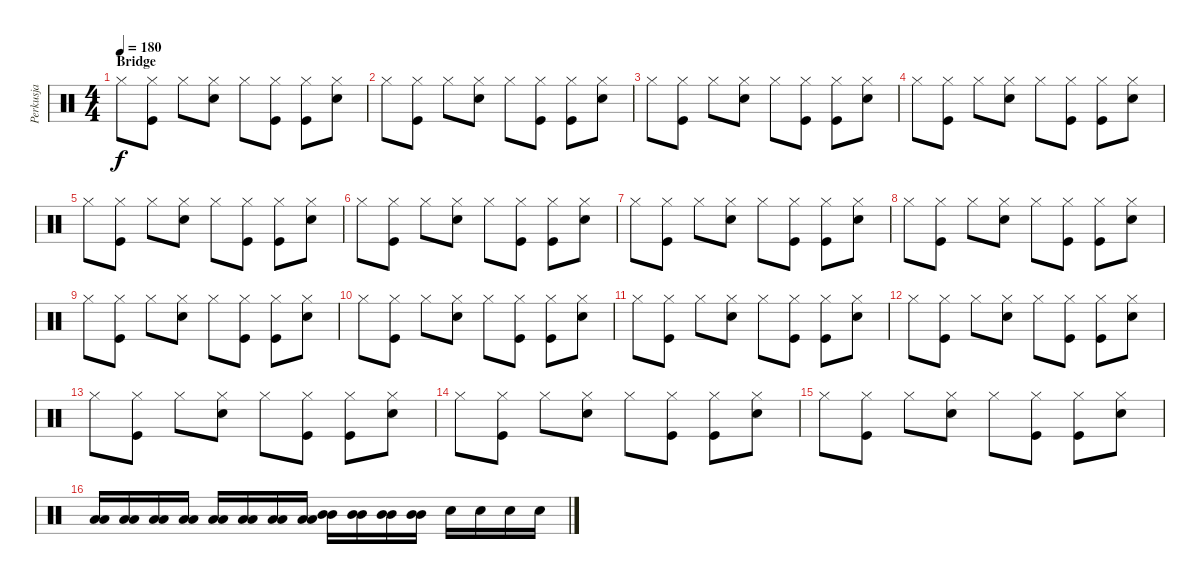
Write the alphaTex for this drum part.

\track ("Perkusja" "Perkusja") {instrument percussion}
\staff {score}
\articulation defaults
\ts (4 4)
\section ("" "Bridge")
\tempo 180
\clef neutral
\ks c "Hi-Hat (closed)".8{dy f}
("Hi-Hat (closed)" "Kick (hit)").8 "Hi-Hat (closed)".8 ("Hi-Hat (closed)" "Electric Snare (hit)").8 "Hi-Hat (closed)".8 ("Hi-Hat (closed)" "Kick (hit)").8 ("Hi-Hat (closed)" "Kick (hit)").8 ("Hi-Hat (closed)" "Electric Snare (hit)").8 |
"Hi-Hat (closed)".8 ("Hi-Hat (closed)" "Kick (hit)").8 "Hi-Hat (closed)".8 ("Hi-Hat (closed)" "Electric Snare (hit)").8 "Hi-Hat (closed)".8 ("Hi-Hat (closed)" "Kick (hit)").8 ("Hi-Hat (closed)" "Kick (hit)").8 ("Hi-Hat (closed)" "Electric Snare (hit)").8 |
"Hi-Hat (closed)".8 ("Hi-Hat (closed)" "Kick (hit)").8 "Hi-Hat (closed)".8 ("Hi-Hat (closed)" "Electric Snare (hit)").8 "Hi-Hat (closed)".8 ("Hi-Hat (closed)" "Kick (hit)").8 ("Hi-Hat (closed)" "Kick (hit)").8 ("Hi-Hat (closed)" "Electric Snare (hit)").8 |
"Hi-Hat (closed)".8 ("Hi-Hat (closed)" "Kick (hit)").8 "Hi-Hat (closed)".8 ("Hi-Hat (closed)" "Electric Snare (hit)").8 "Hi-Hat (closed)".8 ("Hi-Hat (closed)" "Kick (hit)").8 ("Hi-Hat (closed)" "Kick (hit)").8 ("Hi-Hat (closed)" "Electric Snare (hit)").8 |
"Hi-Hat (closed)".8 ("Hi-Hat (closed)" "Kick (hit)").8 "Hi-Hat (closed)".8 ("Hi-Hat (closed)" "Electric Snare (hit)").8 "Hi-Hat (closed)".8 ("Hi-Hat (closed)" "Kick (hit)").8 ("Hi-Hat (closed)" "Kick (hit)").8 ("Hi-Hat (closed)" "Electric Snare (hit)").8 |
"Hi-Hat (closed)".8 ("Hi-Hat (closed)" "Kick (hit)").8 "Hi-Hat (closed)".8 ("Hi-Hat (closed)" "Electric Snare (hit)").8 "Hi-Hat (closed)".8 ("Hi-Hat (closed)" "Kick (hit)").8 ("Hi-Hat (closed)" "Kick (hit)").8 ("Hi-Hat (closed)" "Electric Snare (hit)").8 |
"Hi-Hat (closed)".8 ("Hi-Hat (closed)" "Kick (hit)").8 "Hi-Hat (closed)".8 ("Hi-Hat (closed)" "Electric Snare (hit)").8 "Hi-Hat (closed)".8 ("Hi-Hat (closed)" "Kick (hit)").8 ("Hi-Hat (closed)" "Kick (hit)").8 ("Hi-Hat (closed)" "Electric Snare (hit)").8 |
"Hi-Hat (closed)".8 ("Hi-Hat (closed)" "Kick (hit)").8 "Hi-Hat (closed)".8 ("Hi-Hat (closed)" "Electric Snare (hit)").8 "Hi-Hat (closed)".8 ("Hi-Hat (closed)" "Kick (hit)").8 ("Hi-Hat (closed)" "Kick (hit)").8 ("Hi-Hat (closed)" "Electric Snare (hit)").8 |
"Hi-Hat (closed)".8 ("Hi-Hat (closed)" "Kick (hit)").8 "Hi-Hat (closed)".8 ("Hi-Hat (closed)" "Electric Snare (hit)").8 "Hi-Hat (closed)".8 ("Hi-Hat (closed)" "Kick (hit)").8 ("Hi-Hat (closed)" "Kick (hit)").8 ("Hi-Hat (closed)" "Electric Snare (hit)").8 |
"Hi-Hat (closed)".8 ("Hi-Hat (closed)" "Kick (hit)").8 "Hi-Hat (closed)".8 ("Hi-Hat (closed)" "Electric Snare (hit)").8 "Hi-Hat (closed)".8 ("Hi-Hat (closed)" "Kick (hit)").8 ("Hi-Hat (closed)" "Kick (hit)").8 ("Hi-Hat (closed)" "Electric Snare (hit)").8 |
"Hi-Hat (closed)".8 ("Hi-Hat (closed)" "Kick (hit)").8 "Hi-Hat (closed)".8 ("Hi-Hat (closed)" "Electric Snare (hit)").8 "Hi-Hat (closed)".8 ("Hi-Hat (closed)" "Kick (hit)").8 ("Hi-Hat (closed)" "Kick (hit)").8 ("Hi-Hat (closed)" "Electric Snare (hit)").8 |
"Hi-Hat (closed)".8 ("Hi-Hat (closed)" "Kick (hit)").8 "Hi-Hat (closed)".8 ("Hi-Hat (closed)" "Electric Snare (hit)").8 "Hi-Hat (closed)".8 ("Hi-Hat (closed)" "Kick (hit)").8 ("Hi-Hat (closed)" "Kick (hit)").8 ("Hi-Hat (closed)" "Electric Snare (hit)").8 |
"Hi-Hat (closed)".8 ("Hi-Hat (closed)" "Kick (hit)").8 "Hi-Hat (closed)".8 ("Hi-Hat (closed)" "Electric Snare (hit)").8 "Hi-Hat (closed)".8 ("Hi-Hat (closed)" "Kick (hit)").8 ("Hi-Hat (closed)" "Kick (hit)").8 ("Hi-Hat (closed)" "Electric Snare (hit)").8 |
"Hi-Hat (closed)".8 ("Hi-Hat (closed)" "Kick (hit)").8 "Hi-Hat (closed)".8 ("Hi-Hat (closed)" "Electric Snare (hit)").8 "Hi-Hat (closed)".8 ("Hi-Hat (closed)" "Kick (hit)").8 ("Hi-Hat (closed)" "Kick (hit)").8 ("Hi-Hat (closed)" "Electric Snare (hit)").8 |
"Hi-Hat (closed)".8 ("Hi-Hat (closed)" "Kick (hit)").8 "Hi-Hat (closed)".8 ("Hi-Hat (closed)" "Electric Snare (hit)").8 "Hi-Hat (closed)".8 ("Hi-Hat (closed)" "Kick (hit)").8 ("Hi-Hat (closed)" "Kick (hit)").8 ("Hi-Hat (closed)" "Electric Snare (hit)").8 |
("Low Floor Tom (hit)" "Low Floor Tom (hit)").16 ("Low Floor Tom (hit)" "Low Floor Tom (hit)").16 ("Low Floor Tom (hit)" "Low Floor Tom (hit)").16 ("Low Floor Tom (hit)" "Low Floor Tom (hit)").16 ("Low Tom (hit)" "Low Tom (hit)").16 ("Low Tom (hit)" "Low Tom (hit)").16 ("Low Tom (hit)" "Low Tom (hit)").16 ("Low Tom (hit)" "Low Tom (hit)").16 ("Mid Tom (hit)" "Mid Tom (hit)").16 ("Mid Tom (hit)" "Mid Tom (hit)").16 ("Mid Tom (hit)" "Mid Tom (hit)").16 ("Mid Tom (hit)" "Mid Tom (hit)").16 "Electric Snare (hit)".16 "Electric Snare (hit)".16 "Electric Snare (hit)".16 "Electric Snare (hit)".16
